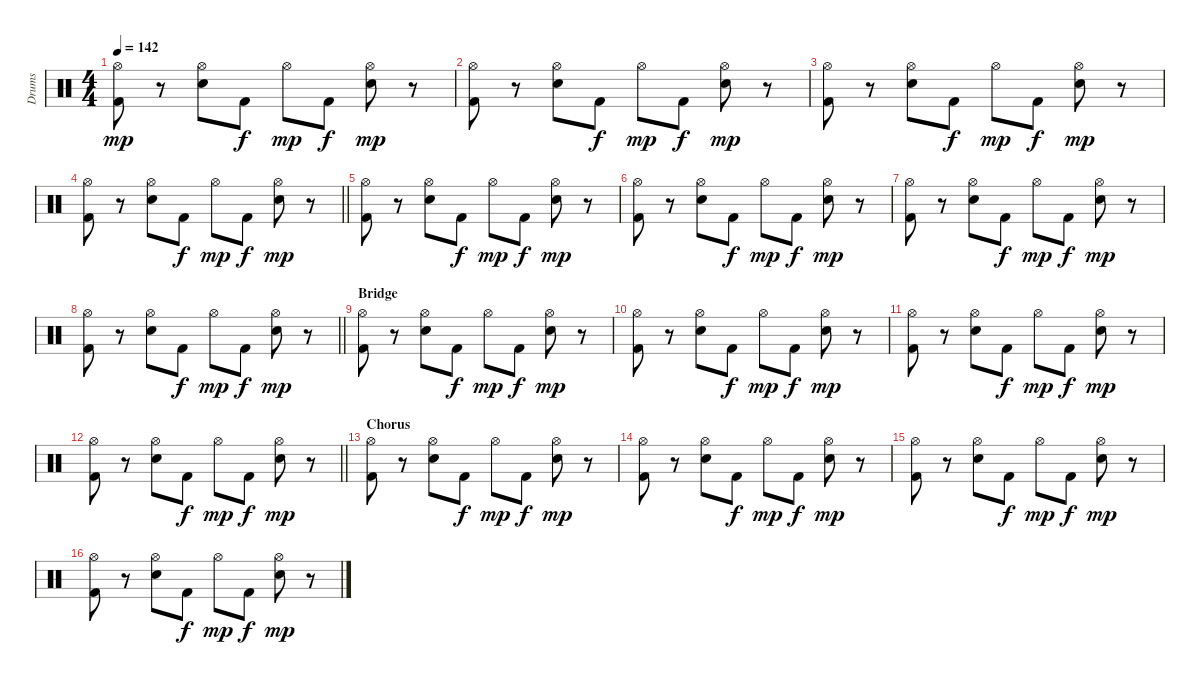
\track ("Drums" "Drums") {instrument percussion}
\staff {score}
\articulation defaults
\ts (4 4)
\tempo 142
\clef neutral
\ks c
("Hi-Hat (open)" "Kick (hit) 2").8{dy mp} r.8 ("Hi-Hat (open)" "Snare (hit) 2").8 "Kick (hit) 2".8{dy f} "Hi-Hat (open)".8{dy mp} "Kick (hit) 2".8{dy f} ("Hi-Hat (open)" "Snare (hit) 2").8{dy mp} r.8 |
("Hi-Hat (open)" "Kick (hit) 2").8 r.8 ("Hi-Hat (open)" "Snare (hit) 2").8 "Kick (hit) 2".8{dy f} "Hi-Hat (open)".8{dy mp} "Kick (hit) 2".8{dy f} ("Hi-Hat (open)" "Snare (hit) 2").8{dy mp} r.8 |
("Hi-Hat (open)" "Kick (hit) 2").8 r.8 ("Hi-Hat (open)" "Snare (hit) 2").8 "Kick (hit) 2".8{dy f} "Hi-Hat (open)".8{dy mp} "Kick (hit) 2".8{dy f} ("Hi-Hat (open)" "Snare (hit) 2").8{dy mp} r.8 |
\barLineRight lightlight
("Hi-Hat (open)" "Kick (hit) 2").8 r.8 ("Hi-Hat (open)" "Snare (hit) 2").8 "Kick (hit) 2".8{dy f} "Hi-Hat (open)".8{dy mp} "Kick (hit) 2".8{dy f} ("Hi-Hat (open)" "Snare (hit) 2").8{dy mp} r.8 |
("Hi-Hat (open)" "Kick (hit) 2").8 r.8 ("Hi-Hat (open)" "Snare (hit) 2").8 "Kick (hit) 2".8{dy f} "Hi-Hat (open)".8{dy mp} "Kick (hit) 2".8{dy f} ("Hi-Hat (open)" "Snare (hit) 2").8{dy mp} r.8 |
("Hi-Hat (open)" "Kick (hit) 2").8 r.8 ("Hi-Hat (open)" "Snare (hit) 2").8 "Kick (hit) 2".8{dy f} "Hi-Hat (open)".8{dy mp} "Kick (hit) 2".8{dy f} ("Hi-Hat (open)" "Snare (hit) 2").8{dy mp} r.8 |
("Hi-Hat (open)" "Kick (hit) 2").8 r.8 ("Hi-Hat (open)" "Snare (hit) 2").8 "Kick (hit) 2".8{dy f} "Hi-Hat (open)".8{dy mp} "Kick (hit) 2".8{dy f} ("Hi-Hat (open)" "Snare (hit) 2").8{dy mp} r.8 |
\barLineRight lightlight
("Hi-Hat (open)" "Kick (hit) 2").8 r.8 ("Hi-Hat (open)" "Snare (hit) 2").8 "Kick (hit) 2".8{dy f} "Hi-Hat (open)".8{dy mp} "Kick (hit) 2".8{dy f} ("Hi-Hat (open)" "Snare (hit) 2").8{dy mp} r.8 |
\section ("" "Bridge")
("Hi-Hat (open)" "Kick (hit) 2").8 r.8 ("Hi-Hat (open)" "Snare (hit) 2").8 "Kick (hit) 2".8{dy f} "Hi-Hat (open)".8{dy mp} "Kick (hit) 2".8{dy f} ("Hi-Hat (open)" "Snare (hit) 2").8{dy mp} r.8 |
("Hi-Hat (open)" "Kick (hit) 2").8 r.8 ("Hi-Hat (open)" "Snare (hit) 2").8 "Kick (hit) 2".8{dy f} "Hi-Hat (open)".8{dy mp} "Kick (hit) 2".8{dy f} ("Hi-Hat (open)" "Snare (hit) 2").8{dy mp} r.8 |
("Hi-Hat (open)" "Kick (hit) 2").8 r.8 ("Hi-Hat (open)" "Snare (hit) 2").8 "Kick (hit) 2".8{dy f} "Hi-Hat (open)".8{dy mp} "Kick (hit) 2".8{dy f} ("Hi-Hat (open)" "Snare (hit) 2").8{dy mp} r.8 |
\barLineRight lightlight
("Hi-Hat (open)" "Kick (hit) 2").8 r.8 ("Hi-Hat (open)" "Snare (hit) 2").8 "Kick (hit) 2".8{dy f} "Hi-Hat (open)".8{dy mp} "Kick (hit) 2".8{dy f} ("Hi-Hat (open)" "Snare (hit) 2").8{dy mp} r.8 |
\section ("" "Chorus")
("Hi-Hat (open)" "Kick (hit) 2").8 r.8 ("Hi-Hat (open)" "Snare (hit) 2").8 "Kick (hit) 2".8{dy f} "Hi-Hat (open)".8{dy mp} "Kick (hit) 2".8{dy f} ("Hi-Hat (open)" "Snare (hit) 2").8{dy mp} r.8 |
("Hi-Hat (open)" "Kick (hit) 2").8 r.8 ("Hi-Hat (open)" "Snare (hit) 2").8 "Kick (hit) 2".8{dy f} "Hi-Hat (open)".8{dy mp} "Kick (hit) 2".8{dy f} ("Hi-Hat (open)" "Snare (hit) 2").8{dy mp} r.8 |
("Hi-Hat (open)" "Kick (hit) 2").8 r.8 ("Hi-Hat (open)" "Snare (hit) 2").8 "Kick (hit) 2".8{dy f} "Hi-Hat (open)".8{dy mp} "Kick (hit) 2".8{dy f} ("Hi-Hat (open)" "Snare (hit) 2").8{dy mp} r.8 |
("Hi-Hat (open)" "Kick (hit) 2").8 r.8 ("Hi-Hat (open)" "Snare (hit) 2").8 "Kick (hit) 2".8{dy f} "Hi-Hat (open)".8{dy mp} "Kick (hit) 2".8{dy f} ("Hi-Hat (open)" "Snare (hit) 2").8{dy mp} r.8
